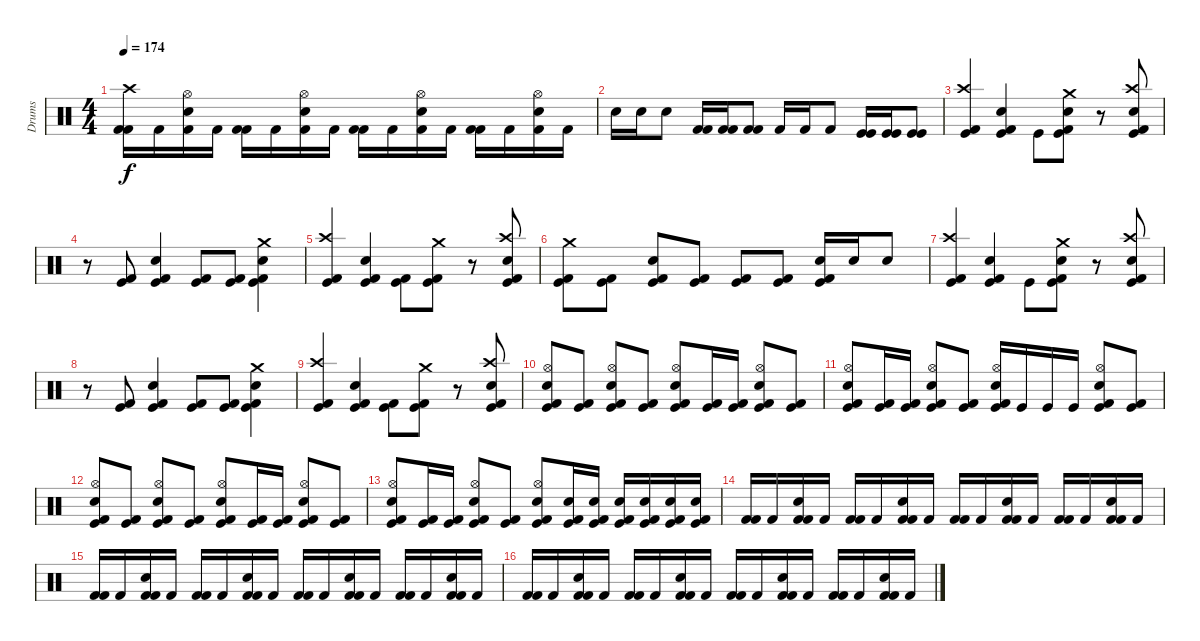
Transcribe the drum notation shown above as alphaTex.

\track ("Drums" "Drums") {instrument percussion}
\staff {score}
\articulation defaults
\ts (4 4)
\tempo 174
\clef neutral
\ks c
("Kick (hit) 2" "Kick (hit) 2" "Crash high (hit)").16{dy f} "Kick (hit) 2".16 ("Kick (hit) 2" "Electric Snare (hit)" "Hi-Hat (open)").16 "Kick (hit) 2".16 ("Kick (hit) 2" "Kick (hit) 2").16 "Kick (hit) 2".16 ("Kick (hit) 2" "Electric Snare (hit)" "Hi-Hat (open)").16 "Kick (hit) 2".16 ("Kick (hit) 2" "Kick (hit) 2").16 "Kick (hit) 2".16 ("Kick (hit) 2" "Electric Snare (hit)" "Hi-Hat (open)").16 "Kick (hit) 2".16 ("Kick (hit) 2" "Kick (hit) 2").16 "Kick (hit) 2".16 ("Kick (hit) 2" "Electric Snare (hit)" "Hi-Hat (open)").16 "Kick (hit) 2".16 |
"Electric Snare (hit)".16 "Electric Snare (hit)".16 "Electric Snare (hit)".8 ("Kick (hit) 2" "Kick (hit) 2").16 ("Kick (hit) 2" "Kick (hit) 2").16 ("Kick (hit) 2" "Kick (hit) 2").8 "Kick (hit) 2".16 "Kick (hit) 2".16 "Kick (hit) 2".8 ("Kick (hit)" "Kick (hit)").16 ("Kick (hit)" "Kick (hit)").16 ("Kick (hit)" "Kick (hit)").8 |
("Kick (hit)" "Kick (hit) 2" "Crash high (hit)").4 ("Kick (hit)" "Kick (hit) 2" "Electric Snare (hit)").4 "Kick (hit)".8 ("Kick (hit)" "Kick (hit) 2" "Electric Snare (hit)" "Crash medium (hit)").8 r.8 ("Kick (hit)" "Kick (hit) 2" "Electric Snare (hit)" "Crash high (hit)").8 |
r.8 ("Kick (hit)" "Kick (hit) 2").8 ("Kick (hit)" "Kick (hit) 2" "Electric Snare (hit)").4 ("Kick (hit)" "Kick (hit) 2").8 ("Kick (hit)" "Kick (hit) 2").8 ("Kick (hit)" "Kick (hit) 2" "Electric Snare (hit)" "Crash medium (hit)").4 |
("Kick (hit)" "Kick (hit) 2" "Crash high (hit)").4 ("Kick (hit)" "Kick (hit) 2" "Electric Snare (hit)").4 ("Kick (hit)" "Kick (hit) 2").8 ("Kick (hit)" "Kick (hit) 2" "Crash medium (hit)").8 r.8 ("Kick (hit)" "Kick (hit) 2" "Electric Snare (hit)" "Crash high (hit)").8 |
("Kick (hit)" "Kick (hit) 2" "Crash medium (hit)").8 ("Kick (hit)" "Kick (hit) 2").8 ("Kick (hit)" "Kick (hit) 2" "Electric Snare (hit)").8 ("Kick (hit)" "Kick (hit) 2").8 ("Kick (hit)" "Kick (hit) 2").8 ("Kick (hit)" "Kick (hit) 2").8 ("Kick (hit)" "Kick (hit) 2" "Electric Snare (hit)").16 "Electric Snare (hit)".16 "Electric Snare (hit)".8 |
("Kick (hit)" "Kick (hit) 2" "Crash high (hit)").4 ("Kick (hit)" "Kick (hit) 2" "Electric Snare (hit)").4 "Kick (hit)".8 ("Kick (hit)" "Kick (hit) 2" "Electric Snare (hit)" "Crash medium (hit)").8 r.8 ("Kick (hit)" "Kick (hit) 2" "Electric Snare (hit)" "Crash high (hit)").8 |
r.8 ("Kick (hit)" "Kick (hit) 2").8 ("Kick (hit)" "Kick (hit) 2" "Electric Snare (hit)").4 ("Kick (hit)" "Kick (hit) 2").8 ("Kick (hit)" "Kick (hit) 2").8 ("Kick (hit)" "Kick (hit) 2" "Electric Snare (hit)" "Crash medium (hit)").4 |
("Kick (hit)" "Kick (hit) 2" "Crash high (hit)").4 ("Kick (hit)" "Kick (hit) 2" "Electric Snare (hit)").4 ("Kick (hit)" "Kick (hit) 2").8 ("Kick (hit)" "Kick (hit) 2" "Crash medium (hit)").8 r.8 ("Kick (hit)" "Kick (hit) 2" "Electric Snare (hit)" "Crash high (hit)").8 |
("Kick (hit)" "Kick (hit) 2" "Electric Snare (hit)" "Hi-Hat (open)").8 ("Kick (hit)" "Kick (hit) 2").8 ("Kick (hit)" "Kick (hit) 2" "Electric Snare (hit)" "Hi-Hat (open)").8 ("Kick (hit)" "Kick (hit) 2").8 ("Kick (hit)" "Kick (hit) 2" "Electric Snare (hit)" "Hi-Hat (open)").8 ("Kick (hit)" "Kick (hit) 2").16 ("Kick (hit)" "Kick (hit) 2").16 ("Kick (hit)" "Kick (hit) 2" "Electric Snare (hit)" "Hi-Hat (open)").8 ("Kick (hit)" "Kick (hit) 2").8 |
("Kick (hit)" "Kick (hit) 2" "Electric Snare (hit)" "Hi-Hat (open)").8 ("Kick (hit)" "Kick (hit) 2").16 ("Kick (hit)" "Kick (hit) 2").16 ("Kick (hit)" "Kick (hit) 2" "Electric Snare (hit)" "Hi-Hat (open)").8 ("Kick (hit)" "Kick (hit) 2").8 ("Kick (hit)" "Kick (hit) 2" "Electric Snare (hit)" "Hi-Hat (open)").16 "Kick (hit)".16 "Kick (hit)".16 "Kick (hit)".16 ("Kick (hit)" "Kick (hit) 2" "Electric Snare (hit)" "Hi-Hat (open)").8 ("Kick (hit)" "Kick (hit) 2").8 |
("Kick (hit)" "Kick (hit) 2" "Electric Snare (hit)" "Hi-Hat (open)").8 ("Kick (hit)" "Kick (hit) 2").8 ("Kick (hit)" "Kick (hit) 2" "Electric Snare (hit)" "Hi-Hat (open)").8 ("Kick (hit)" "Kick (hit) 2").8 ("Kick (hit)" "Kick (hit) 2" "Electric Snare (hit)" "Hi-Hat (open)").8 ("Kick (hit)" "Kick (hit) 2").16 ("Kick (hit)" "Kick (hit) 2").16 ("Kick (hit)" "Kick (hit) 2" "Electric Snare (hit)" "Hi-Hat (open)").8 ("Kick (hit)" "Kick (hit) 2").8 |
("Kick (hit)" "Kick (hit) 2" "Electric Snare (hit)" "Hi-Hat (open)").8 ("Kick (hit)" "Kick (hit) 2").16 ("Kick (hit)" "Kick (hit) 2").16 ("Kick (hit)" "Kick (hit) 2" "Electric Snare (hit)" "Hi-Hat (open)").8 ("Kick (hit)" "Kick (hit) 2").8 ("Kick (hit)" "Kick (hit) 2" "Electric Snare (hit)" "Hi-Hat (open)").8 ("Kick (hit)" "Kick (hit) 2" "Electric Snare (hit)").16 ("Kick (hit)" "Kick (hit) 2" "Electric Snare (hit)").16 ("Kick (hit)" "Kick (hit) 2" "Electric Snare (hit)").16 ("Kick (hit)" "Kick (hit) 2" "Electric Snare (hit)").16 ("Kick (hit)" "Kick (hit) 2" "Electric Snare (hit)").16 ("Kick (hit)" "Kick (hit) 2" "Electric Snare (hit)").16 |
("Kick (hit) 2" "Kick (hit) 2").16 "Kick (hit) 2".16 ("Kick (hit) 2" "Kick (hit) 2" "Electric Snare (hit)").16 "Kick (hit) 2".16 ("Kick (hit) 2" "Kick (hit) 2").16 "Kick (hit) 2".16 ("Kick (hit) 2" "Kick (hit) 2" "Electric Snare (hit)").16 "Kick (hit) 2".16 ("Kick (hit) 2" "Kick (hit) 2").16 "Kick (hit) 2".16 ("Kick (hit) 2" "Kick (hit) 2" "Electric Snare (hit)").16 "Kick (hit) 2".16 ("Kick (hit) 2" "Kick (hit) 2").16 "Kick (hit) 2".16 ("Kick (hit) 2" "Kick (hit) 2" "Electric Snare (hit)").16 "Kick (hit) 2".16 |
("Kick (hit) 2" "Kick (hit) 2").16 "Kick (hit) 2".16 ("Kick (hit) 2" "Kick (hit) 2" "Electric Snare (hit)").16 "Kick (hit) 2".16 ("Kick (hit) 2" "Kick (hit) 2").16 "Kick (hit) 2".16 ("Kick (hit) 2" "Kick (hit) 2" "Electric Snare (hit)").16 "Kick (hit) 2".16 ("Kick (hit) 2" "Kick (hit) 2").16 "Kick (hit) 2".16 ("Kick (hit) 2" "Kick (hit) 2" "Electric Snare (hit)").16 "Kick (hit) 2".16 ("Kick (hit) 2" "Kick (hit) 2").16 "Kick (hit) 2".16 ("Kick (hit) 2" "Kick (hit) 2" "Electric Snare (hit)").16 "Kick (hit) 2".16 |
("Kick (hit) 2" "Kick (hit) 2").16 "Kick (hit) 2".16 ("Kick (hit) 2" "Kick (hit) 2" "Electric Snare (hit)").16 "Kick (hit) 2".16 ("Kick (hit) 2" "Kick (hit) 2").16 "Kick (hit) 2".16 ("Kick (hit) 2" "Kick (hit) 2" "Electric Snare (hit)").16 "Kick (hit) 2".16 ("Kick (hit) 2" "Kick (hit) 2").16 "Kick (hit) 2".16 ("Kick (hit) 2" "Kick (hit) 2" "Electric Snare (hit)").16 "Kick (hit) 2".16 ("Kick (hit) 2" "Kick (hit) 2").16 "Kick (hit) 2".16 ("Kick (hit) 2" "Kick (hit) 2" "Electric Snare (hit)").16 "Kick (hit) 2".16
